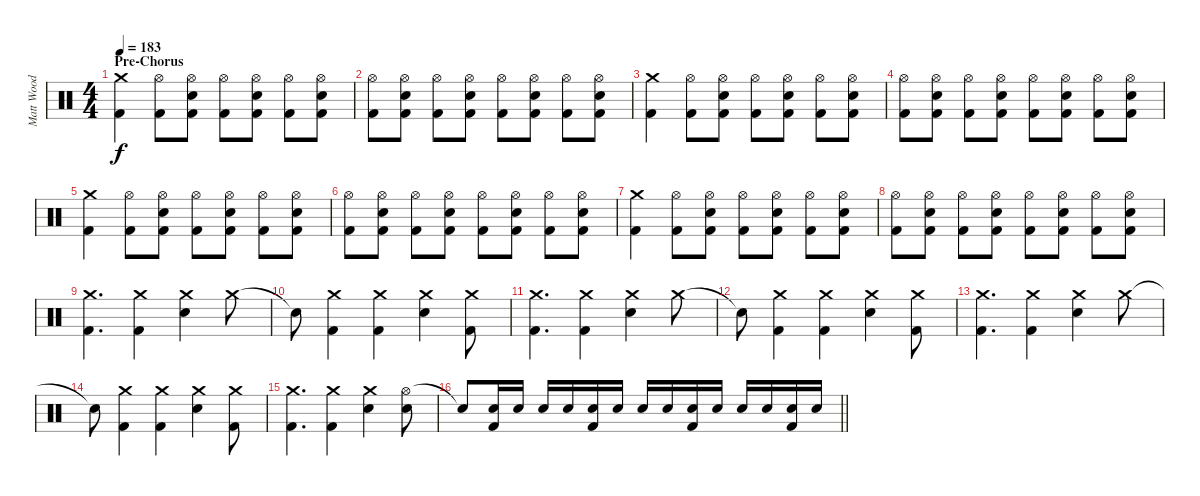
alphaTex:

\track ("Matt Wood" "Matt Wood") {instrument percussion}
\staff {score}
\articulation defaults
\ts (4 4)
\section ("" "Pre-Chorus")
\tempo 183
\clef neutral
\ks c
("Crash medium (hit)" "Kick (hit) 2").4{dy f} ("Hi-Hat (open)" "Kick (hit) 2").8 ("Hi-Hat (open)" "Snare (hit) 2" "Kick (hit) 2").8 ("Hi-Hat (open)" "Kick (hit) 2").8 ("Hi-Hat (open)" "Snare (hit) 2" "Kick (hit) 2").8 ("Hi-Hat (open)" "Kick (hit) 2").8 ("Hi-Hat (open)" "Snare (hit) 2" "Kick (hit) 2").8 |
("Hi-Hat (open)" "Kick (hit) 2").8 ("Hi-Hat (open)" "Snare (hit) 2" "Kick (hit) 2").8 ("Hi-Hat (open)" "Kick (hit) 2").8 ("Hi-Hat (open)" "Snare (hit) 2" "Kick (hit) 2").8 ("Hi-Hat (open)" "Kick (hit) 2").8 ("Hi-Hat (open)" "Snare (hit) 2" "Kick (hit) 2").8 ("Hi-Hat (open)" "Kick (hit) 2").8 ("Hi-Hat (open)" "Snare (hit) 2" "Kick (hit) 2").8 |
("Crash medium (hit)" "Kick (hit) 2").4 ("Hi-Hat (open)" "Kick (hit) 2").8 ("Hi-Hat (open)" "Snare (hit) 2" "Kick (hit) 2").8 ("Hi-Hat (open)" "Kick (hit) 2").8 ("Hi-Hat (open)" "Snare (hit) 2" "Kick (hit) 2").8 ("Hi-Hat (open)" "Kick (hit) 2").8 ("Hi-Hat (open)" "Snare (hit) 2" "Kick (hit) 2").8 |
("Hi-Hat (open)" "Kick (hit) 2").8 ("Hi-Hat (open)" "Snare (hit) 2" "Kick (hit) 2").8 ("Hi-Hat (open)" "Kick (hit) 2").8 ("Hi-Hat (open)" "Snare (hit) 2" "Kick (hit) 2").8 ("Hi-Hat (open)" "Kick (hit) 2").8 ("Hi-Hat (open)" "Snare (hit) 2" "Kick (hit) 2").8 ("Hi-Hat (open)" "Kick (hit) 2").8 ("Hi-Hat (open)" "Snare (hit) 2" "Kick (hit) 2").8 |
("Crash medium (hit)" "Kick (hit) 2").4 ("Hi-Hat (open)" "Kick (hit) 2").8 ("Hi-Hat (open)" "Snare (hit) 2" "Kick (hit) 2").8 ("Hi-Hat (open)" "Kick (hit) 2").8 ("Hi-Hat (open)" "Snare (hit) 2" "Kick (hit) 2").8 ("Hi-Hat (open)" "Kick (hit) 2").8 ("Hi-Hat (open)" "Snare (hit) 2" "Kick (hit) 2").8 |
("Hi-Hat (open)" "Kick (hit) 2").8 ("Hi-Hat (open)" "Snare (hit) 2" "Kick (hit) 2").8 ("Hi-Hat (open)" "Kick (hit) 2").8 ("Hi-Hat (open)" "Snare (hit) 2" "Kick (hit) 2").8 ("Hi-Hat (open)" "Kick (hit) 2").8 ("Hi-Hat (open)" "Snare (hit) 2" "Kick (hit) 2").8 ("Hi-Hat (open)" "Kick (hit) 2").8 ("Hi-Hat (open)" "Snare (hit) 2" "Kick (hit) 2").8 |
("Crash medium (hit)" "Kick (hit) 2").4 ("Hi-Hat (open)" "Kick (hit) 2").8 ("Hi-Hat (open)" "Snare (hit) 2" "Kick (hit) 2").8 ("Hi-Hat (open)" "Kick (hit) 2").8 ("Hi-Hat (open)" "Snare (hit) 2" "Kick (hit) 2").8 ("Hi-Hat (open)" "Kick (hit) 2").8 ("Hi-Hat (open)" "Snare (hit) 2" "Kick (hit) 2").8 |
("Hi-Hat (open)" "Kick (hit) 2").8 ("Hi-Hat (open)" "Snare (hit) 2" "Kick (hit) 2").8 ("Hi-Hat (open)" "Kick (hit) 2").8 ("Hi-Hat (open)" "Snare (hit) 2" "Kick (hit) 2").8 ("Hi-Hat (open)" "Kick (hit) 2").8 ("Hi-Hat (open)" "Snare (hit) 2" "Kick (hit) 2").8 ("Hi-Hat (open)" "Kick (hit) 2").8 ("Hi-Hat (open)" "Snare (hit) 2" "Kick (hit) 2").8 |
("Crash medium (hit)" "Kick (hit) 2").4{d} ("Crash medium (hit)" "Kick (hit) 2").4 ("Crash medium (hit)" "Snare (hit) 2").4 "Crash medium (hit)".8 |
"Snare (hit)"{t}.8 ("Crash medium (hit)" "Kick (hit) 2").4 ("Crash medium (hit)" "Kick (hit) 2").4 ("Crash medium (hit)" "Snare (hit) 2").4 ("Crash medium (hit)" "Kick (hit) 2").8 |
("Crash medium (hit)" "Kick (hit) 2").4{d} ("Crash medium (hit)" "Kick (hit) 2").4 ("Crash medium (hit)" "Snare (hit) 2").4 "Crash medium (hit)".8 |
"Snare (hit)"{t}.8 ("Crash medium (hit)" "Kick (hit) 2").4 ("Crash medium (hit)" "Kick (hit) 2").4 ("Crash medium (hit)" "Snare (hit) 2").4 ("Crash medium (hit)" "Kick (hit) 2").8 |
("Crash medium (hit)" "Kick (hit) 2").4{d} ("Crash medium (hit)" "Kick (hit) 2").4 ("Crash medium (hit)" "Snare (hit) 2").4 "Crash medium (hit)".8 |
"Snare (hit)"{t}.8 ("Crash medium (hit)" "Kick (hit) 2").4 ("Crash medium (hit)" "Kick (hit) 2").4 ("Crash medium (hit)" "Snare (hit) 2").4 ("Crash medium (hit)" "Kick (hit) 2").8 |
("Crash medium (hit)" "Kick (hit) 2").4{d} ("Crash medium (hit)" "Kick (hit) 2").4 ("Crash medium (hit)" "Snare (hit) 2").4 ("Hi-Hat (open)" "Snare (hit) 2").8 |
\barLineRight lightlight "Snare (hit)"{t}.8
("Snare (hit) 2" "Kick (hit) 2").16 "Snare (hit) 2".16 "Snare (hit) 2".16 "Snare (hit) 2".16 ("Snare (hit) 2" "Kick (hit) 2").16 "Snare (hit) 2".16 "Snare (hit) 2".16 "Snare (hit) 2".16 ("Snare (hit) 2" "Kick (hit) 2").16 "Snare (hit) 2".16 "Snare (hit) 2".16 "Snare (hit) 2".16 ("Snare (hit) 2" "Kick (hit) 2").16 "Snare (hit) 2".16
